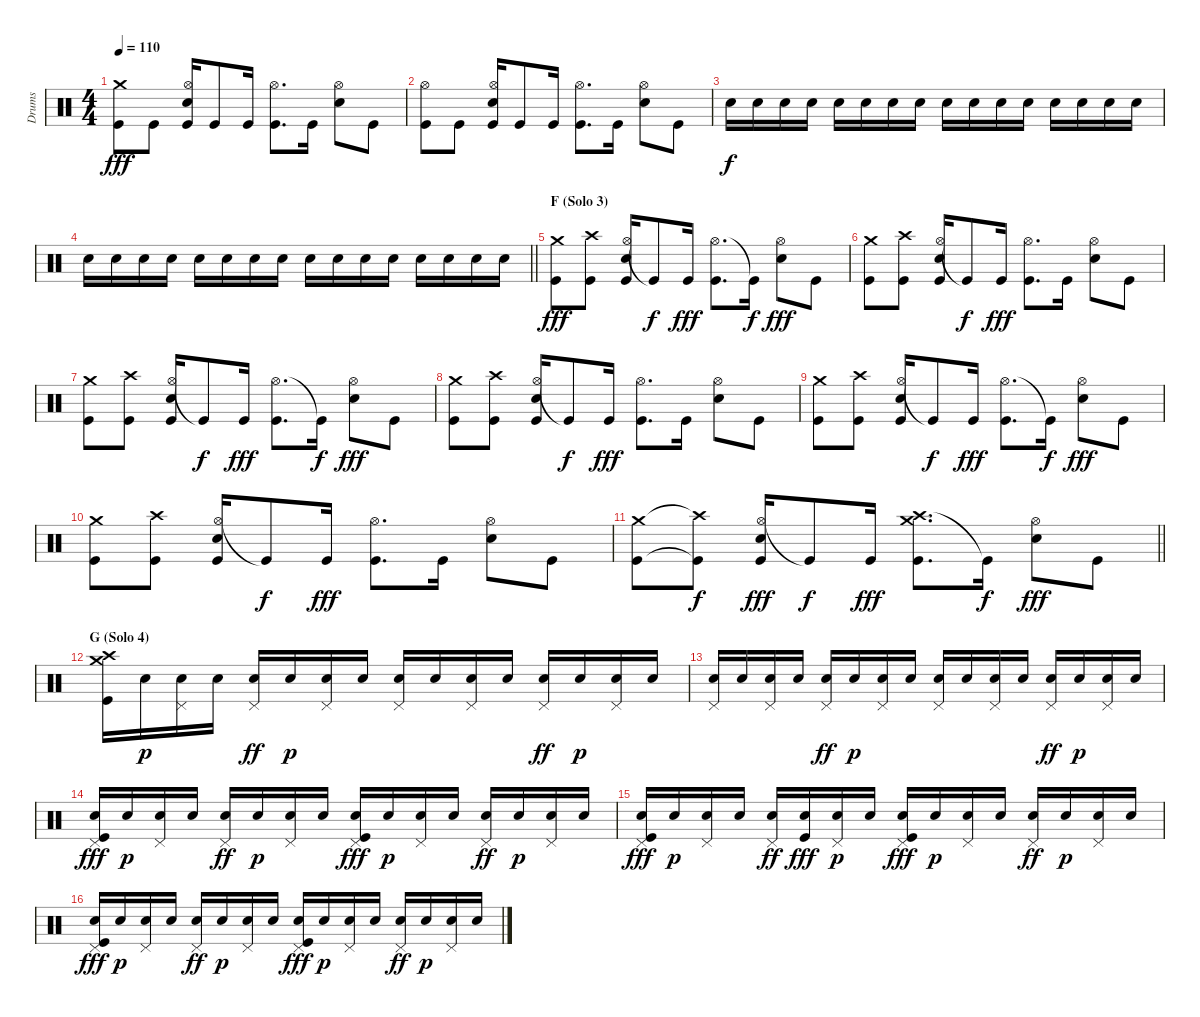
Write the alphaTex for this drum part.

\track ("Drums" "Drums") {instrument percussion}
\staff {score}
\articulation defaults
\ts (4 4)
\tempo 110
\clef neutral
\ks c
("Crash medium (hit)" "Kick (hit)").8{dy fff} "Kick (hit)".8 ("Hi-Hat (open)" "Electric Snare (hit)" "Kick (hit)").16 "Kick (hit)".8 "Kick (hit)".16 ("Hi-Hat (open)" "Kick (hit)").8{d} "Kick (hit)".16 ("Hi-Hat (open)" "Electric Snare (hit)").8 "Kick (hit)".8 |
("Hi-Hat (open)" "Kick (hit)").8 "Kick (hit)".8 ("Hi-Hat (open)" "Electric Snare (hit)" "Kick (hit)").16 "Kick (hit)".8 "Kick (hit)".16 ("Hi-Hat (open)" "Kick (hit)").8{d} "Kick (hit)".16 ("Hi-Hat (open)" "Electric Snare (hit)").8 "Kick (hit)".8 |
"Electric Snare (hit)".16{dy f} "Electric Snare (hit)".16 "Electric Snare (hit)".16 "Electric Snare (hit)".16 "Electric Snare (hit)".16 "Electric Snare (hit)".16 "Electric Snare (hit)".16 "Electric Snare (hit)".16 "Electric Snare (hit)".16 "Electric Snare (hit)".16 "Electric Snare (hit)".16 "Electric Snare (hit)".16 "Electric Snare (hit)".16 "Electric Snare (hit)".16 "Electric Snare (hit)".16 "Electric Snare (hit)".16 |
\barLineRight lightlight "Electric Snare (hit)".16 "Electric Snare (hit)".16 "Electric Snare (hit)".16 "Electric Snare (hit)".16 "Electric Snare (hit)".16 "Electric Snare (hit)".16 "Electric Snare (hit)".16 "Electric Snare (hit)".16 "Electric Snare (hit)".16 "Electric Snare (hit)".16 "Electric Snare (hit)".16 "Electric Snare (hit)".16 "Electric Snare (hit)".16 "Electric Snare (hit)".16 "Electric Snare (hit)".16 "Electric Snare (hit)".16
|
\section ("" "F (Solo 3)")
("Crash medium (hit)" "Kick (hit)").8{dy fff} ("Crash high (hit)" "Kick (hit)").8 ("Hi-Hat (open)" "Electric Snare (hit)" "Kick (hit)").16 "Kick (hit)"{t}.8{dy f} "Kick (hit)".16{dy fff} ("Hi-Hat (open)" "Kick (hit)").8{d} "Kick (hit)"{t}.16{dy f} ("Hi-Hat (open)" "Electric Snare (hit)").8{dy fff} "Kick (hit)".8 |
("Crash medium (hit)" "Kick (hit)").8 ("Crash high (hit)" "Kick (hit)").8 ("Hi-Hat (open)" "Electric Snare (hit)" "Kick (hit)").16 "Kick (hit)"{t}.8{dy f} "Kick (hit)".16{dy fff} ("Hi-Hat (open)" "Kick (hit)").8{d} "Kick (hit)".16 ("Hi-Hat (open)" "Electric Snare (hit)").8 "Kick (hit)".8 |
("Crash medium (hit)" "Kick (hit)").8 ("Crash high (hit)" "Kick (hit)").8 ("Hi-Hat (open)" "Electric Snare (hit)" "Kick (hit)").16 "Kick (hit)"{t}.8{dy f} "Kick (hit)".16{dy fff} ("Hi-Hat (open)" "Kick (hit)").8{d} "Kick (hit)"{t}.16{dy f} ("Hi-Hat (open)" "Electric Snare (hit)").8{dy fff} "Kick (hit)".8 |
("Crash medium (hit)" "Kick (hit)").8 ("Crash high (hit)" "Kick (hit)").8 ("Hi-Hat (open)" "Electric Snare (hit)" "Kick (hit)").16 "Kick (hit)"{t}.8{dy f} "Kick (hit)".16{dy fff} ("Hi-Hat (open)" "Kick (hit)").8{d} "Kick (hit)".16 ("Hi-Hat (open)" "Electric Snare (hit)").8 "Kick (hit)".8 |
("Crash medium (hit)" "Kick (hit)").8 ("Crash high (hit)" "Kick (hit)").8 ("Hi-Hat (open)" "Electric Snare (hit)" "Kick (hit)").16 "Kick (hit)"{t}.8{dy f} "Kick (hit)".16{dy fff} ("Hi-Hat (open)" "Kick (hit)").8{d} "Kick (hit)"{t}.16{dy f} ("Hi-Hat (open)" "Electric Snare (hit)").8{dy fff} "Kick (hit)".8 |
("Crash medium (hit)" "Kick (hit)").8 ("Crash high (hit)" "Kick (hit)").8 ("Hi-Hat (open)" "Electric Snare (hit)" "Kick (hit)").16 "Kick (hit)"{t}.8{dy f} "Kick (hit)".16{dy fff} ("Hi-Hat (open)" "Kick (hit)").8{d} "Kick (hit)".16 ("Hi-Hat (open)" "Electric Snare (hit)").8 "Kick (hit)".8 |
\barLineRight lightlight
("Crash medium (hit)" "Kick (hit)").8 ("Crash high (hit)"{t} "Kick (hit)"{t}).8{dy f} ("Hi-Hat (open)" "Electric Snare (hit)" "Kick (hit)").16{dy fff} "Kick (hit)"{t}.8{dy f} "Kick (hit)".16{dy fff} ("Crash high (hit)" "Crash medium (hit)" "Kick (hit)").8{d} "Kick (hit)"{t}.16{dy f} ("Hi-Hat (open)" "Electric Snare (hit)").8{dy fff} "Kick (hit)".8 |
\section ("" "G (Solo 4)")
("Crash medium (hit)" "Crash high (hit)" "Kick (hit)").16 "Electric Snare (hit)".16{dy p} ("Pedal Hi-Hat (hit)" "Electric Snare (hit)").16 "Electric Snare (hit)".16 ("Pedal Hi-Hat (hit)" "Electric Snare (hit)").16{dy ff} "Electric Snare (hit)".16{dy p} ("Pedal Hi-Hat (hit)" "Electric Snare (hit)").16 "Electric Snare (hit)".16 ("Pedal Hi-Hat (hit)" "Electric Snare (hit)").16 "Electric Snare (hit)".16 ("Pedal Hi-Hat (hit)" "Electric Snare (hit)").16 "Electric Snare (hit)".16 ("Pedal Hi-Hat (hit)" "Electric Snare (hit)").16{dy ff} "Electric Snare (hit)".16{dy p} ("Pedal Hi-Hat (hit)" "Electric Snare (hit)").16 "Electric Snare (hit)".16 |
("Pedal Hi-Hat (hit)" "Electric Snare (hit)").16 "Electric Snare (hit)".16 ("Pedal Hi-Hat (hit)" "Electric Snare (hit)").16 "Electric Snare (hit)".16 ("Pedal Hi-Hat (hit)" "Electric Snare (hit)").16{dy ff} "Electric Snare (hit)".16{dy p} ("Pedal Hi-Hat (hit)" "Electric Snare (hit)").16 "Electric Snare (hit)".16 ("Pedal Hi-Hat (hit)" "Electric Snare (hit)").16 "Electric Snare (hit)".16 ("Pedal Hi-Hat (hit)" "Electric Snare (hit)").16 "Electric Snare (hit)".16 ("Pedal Hi-Hat (hit)" "Electric Snare (hit)").16{dy ff} "Electric Snare (hit)".16{dy p} ("Pedal Hi-Hat (hit)" "Electric Snare (hit)").16 "Electric Snare (hit)".16 |
("Pedal Hi-Hat (hit)" "Electric Snare (hit)" "Kick (hit)").16{dy fff} "Electric Snare (hit)".16{dy p} ("Pedal Hi-Hat (hit)" "Electric Snare (hit)").16 "Electric Snare (hit)".16 ("Pedal Hi-Hat (hit)" "Electric Snare (hit)").16{dy ff} "Electric Snare (hit)".16{dy p} ("Pedal Hi-Hat (hit)" "Electric Snare (hit)").16 "Electric Snare (hit)".16 ("Pedal Hi-Hat (hit)" "Electric Snare (hit)" "Kick (hit)").16{dy fff} "Electric Snare (hit)".16{dy p} ("Pedal Hi-Hat (hit)" "Electric Snare (hit)").16 "Electric Snare (hit)".16 ("Pedal Hi-Hat (hit)" "Electric Snare (hit)").16{dy ff} "Electric Snare (hit)".16{dy p} ("Pedal Hi-Hat (hit)" "Electric Snare (hit)").16 "Electric Snare (hit)".16 |
("Pedal Hi-Hat (hit)" "Electric Snare (hit)" "Kick (hit)").16{dy fff} "Electric Snare (hit)".16{dy p} ("Pedal Hi-Hat (hit)" "Electric Snare (hit)").16 "Electric Snare (hit)".16 ("Pedal Hi-Hat (hit)" "Electric Snare (hit)").16{dy ff} ("Electric Snare (hit)" "Kick (hit)").16{dy fff} ("Pedal Hi-Hat (hit)" "Electric Snare (hit)").16{dy p} "Electric Snare (hit)".16 ("Pedal Hi-Hat (hit)" "Electric Snare (hit)" "Kick (hit)").16{dy fff} "Electric Snare (hit)".16{dy p} ("Pedal Hi-Hat (hit)" "Electric Snare (hit)").16 "Electric Snare (hit)".16 ("Pedal Hi-Hat (hit)" "Electric Snare (hit)").16{dy ff} "Electric Snare (hit)".16{dy p} ("Pedal Hi-Hat (hit)" "Electric Snare (hit)").16 "Electric Snare (hit)".16 |
("Pedal Hi-Hat (hit)" "Electric Snare (hit)" "Kick (hit)").16{dy fff} "Electric Snare (hit)".16{dy p} ("Pedal Hi-Hat (hit)" "Electric Snare (hit)").16 "Electric Snare (hit)".16 ("Pedal Hi-Hat (hit)" "Electric Snare (hit)").16{dy ff} "Electric Snare (hit)".16{dy p} ("Pedal Hi-Hat (hit)" "Electric Snare (hit)").16 "Electric Snare (hit)".16 ("Pedal Hi-Hat (hit)" "Electric Snare (hit)" "Kick (hit)").16{dy fff} "Electric Snare (hit)".16{dy p} ("Pedal Hi-Hat (hit)" "Electric Snare (hit)").16 "Electric Snare (hit)".16 ("Pedal Hi-Hat (hit)" "Electric Snare (hit)").16{dy ff} "Electric Snare (hit)".16{dy p} ("Pedal Hi-Hat (hit)" "Electric Snare (hit)").16 "Electric Snare (hit)".16
